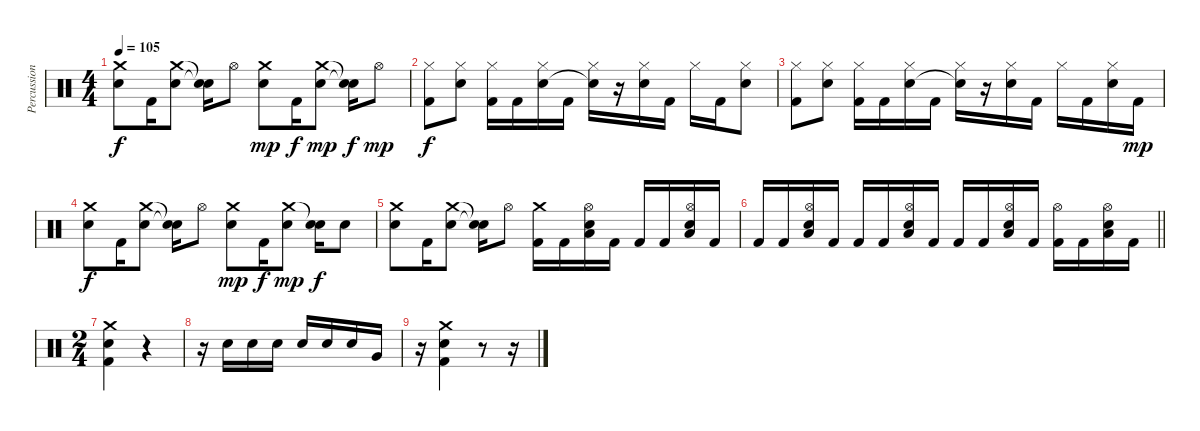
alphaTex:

\track ("Percussion" "Percussion") {instrument percussion}
\staff {score}
\articulation defaults
\ts (4 4)
\tempo 105
\clef neutral
\ks c
("Crash medium (hit)" "Snare (hit) 2").8{dy f} "Kick (hit) 2".16 ("Crash medium (hit)" "Snare (hit) 2").8 ("Snare (hit)"{t} "Snare (hit)"{t}).16 "Hi-Hat (open)".8 ("Crash medium (hit)" "Snare (hit) 2").8{dy mp} "Kick (hit) 2".16{dy f} ("Crash medium (hit)" "Snare (hit) 2").8{dy mp} ("Snare (hit)"{t} "Snare (hit)"{t}).16{dy f} "Hi-Hat (open)".8{dy mp} |
("Hi-Hat (closed)" "Kick (hit) 2").8{dy f} ("Hi-Hat (closed)" "Snare (hit) 2").8 ("Hi-Hat (closed)" "Kick (hit) 2").16 "Kick (hit) 2".16 ("Hi-Hat (closed)" "Snare (hit) 2").16 "Kick (hit) 2".16 ("Hi-Hat (closed)" "Snare (hit)"{t}).16 r.16 ("Hi-Hat (closed)" "Snare (hit) 2").16 "Kick (hit) 2".16 "Hi-Hat (closed)".16 "Kick (hit) 2".16 ("Hi-Hat (closed)" "Snare (hit) 2").8 |
("Hi-Hat (closed)" "Kick (hit) 2").8 ("Hi-Hat (closed)" "Snare (hit) 2").8 ("Hi-Hat (closed)" "Kick (hit) 2").16 "Kick (hit) 2".16 ("Hi-Hat (closed)" "Snare (hit) 2").16 "Kick (hit) 2".16 ("Hi-Hat (closed)" "Snare (hit)"{t}).16 r.16 ("Hi-Hat (closed)" "Snare (hit) 2").16 "Kick (hit) 2".16 "Hi-Hat (closed)".16 "Kick (hit) 2".16 ("Hi-Hat (closed)" "Snare (hit) 2").16 "Kick (hit) 2".16{dy mp} |
("Crash medium (hit)" "Snare (hit) 2").8{dy f} "Kick (hit) 2".16 ("Crash medium (hit)" "Snare (hit) 2").8 ("Snare (hit)"{t} "Snare (hit)"{t}).16 "Hi-Hat (open)".8 ("Crash medium (hit)" "Snare (hit) 2").8{dy mp} "Kick (hit) 2".16{dy f} ("Crash medium (hit)" "Snare (hit) 2").8{dy mp} ("Snare (hit)"{t} "Snare (hit) 2").16{dy f} "Snare (hit) 2".8 |
("Crash medium (hit)" "Snare (hit) 2").8 "Kick (hit) 2".16 ("Crash medium (hit)" "Snare (hit) 2").8 ("Snare (hit)"{t} "Snare (hit)"{t}).16 "Hi-Hat (open)".8 ("Crash medium (hit)" "Kick (hit) 2").16 "Kick (hit) 2".16 ("Hi-Hat (open)" "Low Tom (hit)" "Snare (hit) 2").16 "Kick (hit) 2".16 "Kick (hit) 2".16 "Kick (hit) 2".16 ("Hi-Hat (open)" "Low Tom (hit)" "Snare (hit) 2").16 "Kick (hit) 2".16 |
\barLineRight lightlight "Kick (hit) 2".16 "Kick (hit) 2".16
("Hi-Hat (open)" "Low Tom (hit)" "Snare (hit) 2").16 "Kick (hit) 2".16 "Kick (hit) 2".16 "Kick (hit) 2".16 ("Hi-Hat (open)" "Low Tom (hit)" "Snare (hit) 2").16 "Kick (hit) 2".16 "Kick (hit) 2".16 "Kick (hit) 2".16 ("Hi-Hat (open)" "Low Tom (hit)" "Snare (hit) 2").16 "Kick (hit) 2".16 ("Hi-Hat (open)" "Kick (hit) 2").16 "Kick (hit) 2".16 ("Hi-Hat (open)" "Low Tom (hit)" "Snare (hit) 2").16 "Kick (hit) 2".16 |
\ts (2 4)
("Crash medium (hit)" "Snare (hit) 2" "Kick (hit) 2").4 r.4 |
r.16 "Snare (hit) 2".16 "Snare (hit) 2".16 "Snare (hit) 2".16 "Snare (hit) 2".16 "Snare (hit) 2".16 "Snare (hit) 2".16 "Very Low Tom (hit)".16 |
r.16 ("Crash medium (hit)" "Snare (hit) 2" "Kick (hit) 2").4 r.8 r.16
